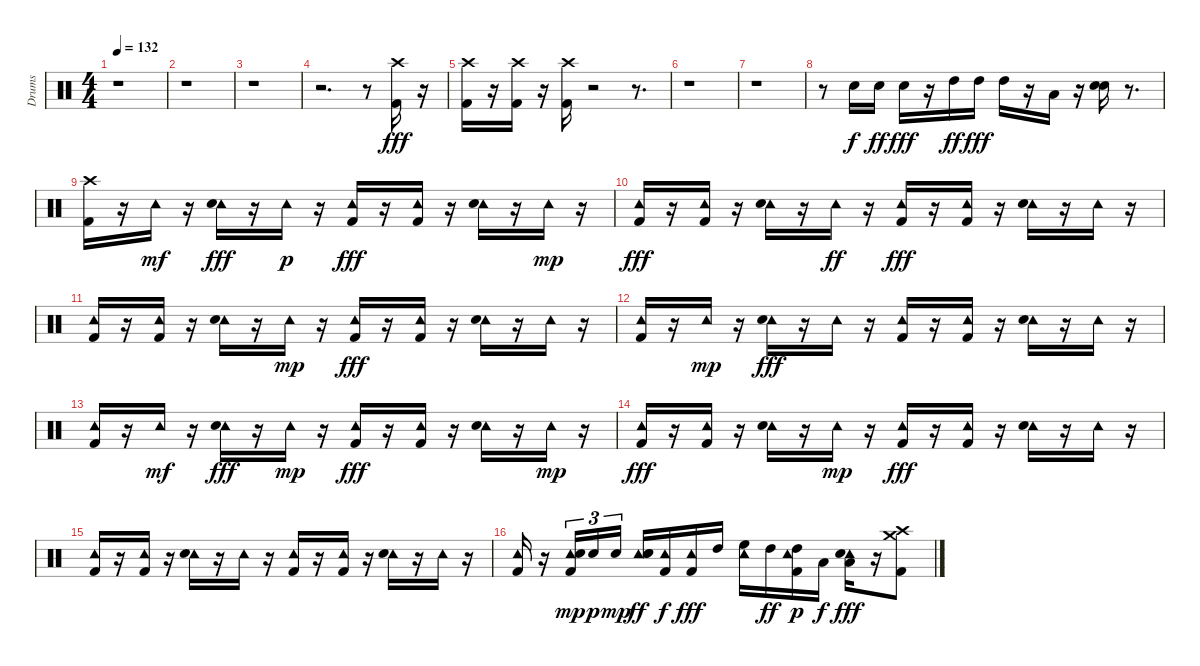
\track ("Drums" "Drums") {instrument percussion}
\staff {score}
\articulation defaults
\ts (4 4)
\tempo 132
\clef neutral
\ks c
r.1{dy fff} |
r.1 |
r.1 |
r.2{d} r.8 ("Crash high (hit)" "Kick (hit) 2").16 r.16 |
("Crash high (hit)" "Kick (hit) 2").16 r.16 ("Crash high (hit)" "Kick (hit) 2").16 r.16 ("Crash high (hit)" "Kick (hit) 2").16 r.2 r.8{d} |
r.1 |
r.1 |
r.8 "Snare (hit) 2".16{dy f} "Snare (hit) 2".16{dy ff} "Snare (hit) 2".16{dy fff} r.16 "High Tom (hit)".16{dy ff} "High Tom (hit)".16{dy fff} "High Tom (hit)".16 r.16 "Low Tom (hit)".16 r.16 ("Snare (hit) 2" "Snare (hit) 2").16 r.8{d} |
("Crash high (hit)" "Kick (hit) 2").16 r.16 "Tambourine (hit)".16{dy mf} r.16 ("Tambourine (hit)" "Snare (hit) 2").16{dy fff} r.16 "Tambourine (hit)".16{dy p} r.16 ("Tambourine (hit)" "Kick (hit) 2").16{dy fff} r.16 ("Tambourine (hit)" "Kick (hit) 2").16 r.16 ("Tambourine (hit)" "Snare (hit) 2").16 r.16 "Tambourine (hit)".16{dy mp} r.16 |
("Tambourine (hit)" "Kick (hit) 2").16{dy fff} r.16 ("Tambourine (hit)" "Kick (hit) 2").16 r.16 ("Tambourine (hit)" "Snare (hit) 2").16 r.16 "Tambourine (hit)".16{dy ff} r.16 ("Tambourine (hit)" "Kick (hit) 2").16{dy fff} r.16 ("Tambourine (hit)" "Kick (hit) 2").16 r.16 ("Tambourine (hit)" "Snare (hit) 2").16 r.16 "Tambourine (hit)".16 r.16 |
("Tambourine (hit)" "Kick (hit) 2").16 r.16 ("Tambourine (hit)" "Kick (hit) 2").16 r.16 ("Tambourine (hit)" "Snare (hit) 2").16 r.16 "Tambourine (hit)".16{dy mp} r.16 ("Tambourine (hit)" "Kick (hit) 2").16{dy fff} r.16 ("Tambourine (hit)" "Kick (hit) 2").16 r.16 ("Tambourine (hit)" "Snare (hit) 2").16 r.16 "Tambourine (hit)".16 r.16 |
("Tambourine (hit)" "Kick (hit) 2").16 r.16 "Tambourine (hit)".16{dy mp} r.16 ("Tambourine (hit)" "Snare (hit) 2").16{dy fff} r.16 "Tambourine (hit)".16 r.16 ("Tambourine (hit)" "Kick (hit) 2").16 r.16 ("Tambourine (hit)" "Kick (hit) 2").16 r.16 ("Tambourine (hit)" "Snare (hit) 2").16 r.16 "Tambourine (hit)".16 r.16 |
("Tambourine (hit)" "Kick (hit) 2").16 r.16 "Tambourine (hit)".16{dy mf} r.16 ("Tambourine (hit)" "Snare (hit) 2").16{dy fff} r.16 "Tambourine (hit)".16{dy mp} r.16 ("Tambourine (hit)" "Kick (hit) 2").16{dy fff} r.16 ("Tambourine (hit)" "Kick (hit) 2").16 r.16 ("Tambourine (hit)" "Snare (hit) 2").16 r.16 "Tambourine (hit)".16{dy mp} r.16 |
("Tambourine (hit)" "Kick (hit) 2").16{dy fff} r.16 ("Tambourine (hit)" "Kick (hit) 2").16 r.16 ("Tambourine (hit)" "Snare (hit) 2").16 r.16 "Tambourine (hit)".16{dy mp} r.16 ("Tambourine (hit)" "Kick (hit) 2").16{dy fff} r.16 ("Tambourine (hit)" "Kick (hit) 2").16 r.16 ("Tambourine (hit)" "Snare (hit) 2").16 r.16 "Tambourine (hit)".16 r.16 |
("Tambourine (hit)" "Kick (hit) 2").16 r.16 ("Tambourine (hit)" "Kick (hit) 2").16 r.16 ("Tambourine (hit)" "Snare (hit) 2").16 r.16 "Tambourine (hit)".16 r.16 ("Tambourine (hit)" "Kick (hit) 2").16 r.16 ("Tambourine (hit)" "Kick (hit) 2").16 r.16 ("Tambourine (hit)" "Snare (hit) 2").16 r.16 "Tambourine (hit)".16 r.16 |
("Tambourine (hit)" "Kick (hit) 2").16 r.16 ("Tambourine (hit)" "Kick (hit) 2" "Snare (hit) 2").16{tu (3 2) dy mp} "Snare (hit) 2".16{tu (3 2) dy p} "Snare (hit) 2".16{tu (3 2) dy mp} ("Tambourine (hit)" "Snare (hit) 2" "Snare (hit) 2").16{dy ff} ("Tambourine (hit)" "Kick (hit) 2").16{dy f} ("Tambourine (hit)" "Kick (hit) 2").16{dy fff} "High Tom (hit)".16 ("Tambourine (hit)" "High Floor Tom (hit)").16 "High Tom (hit)".16{dy ff} ("Tambourine (hit)" "Kick (hit) 2" "High Tom (hit)").16{dy p} "Low Tom (hit)".16{dy f} ("Tambourine (hit)" "Snare (hit) 2" "Low Tom (hit)").16{dy fff} r.16 ("Crash high (hit)" "Kick (hit) 2" "Crash medium (hit)").8
